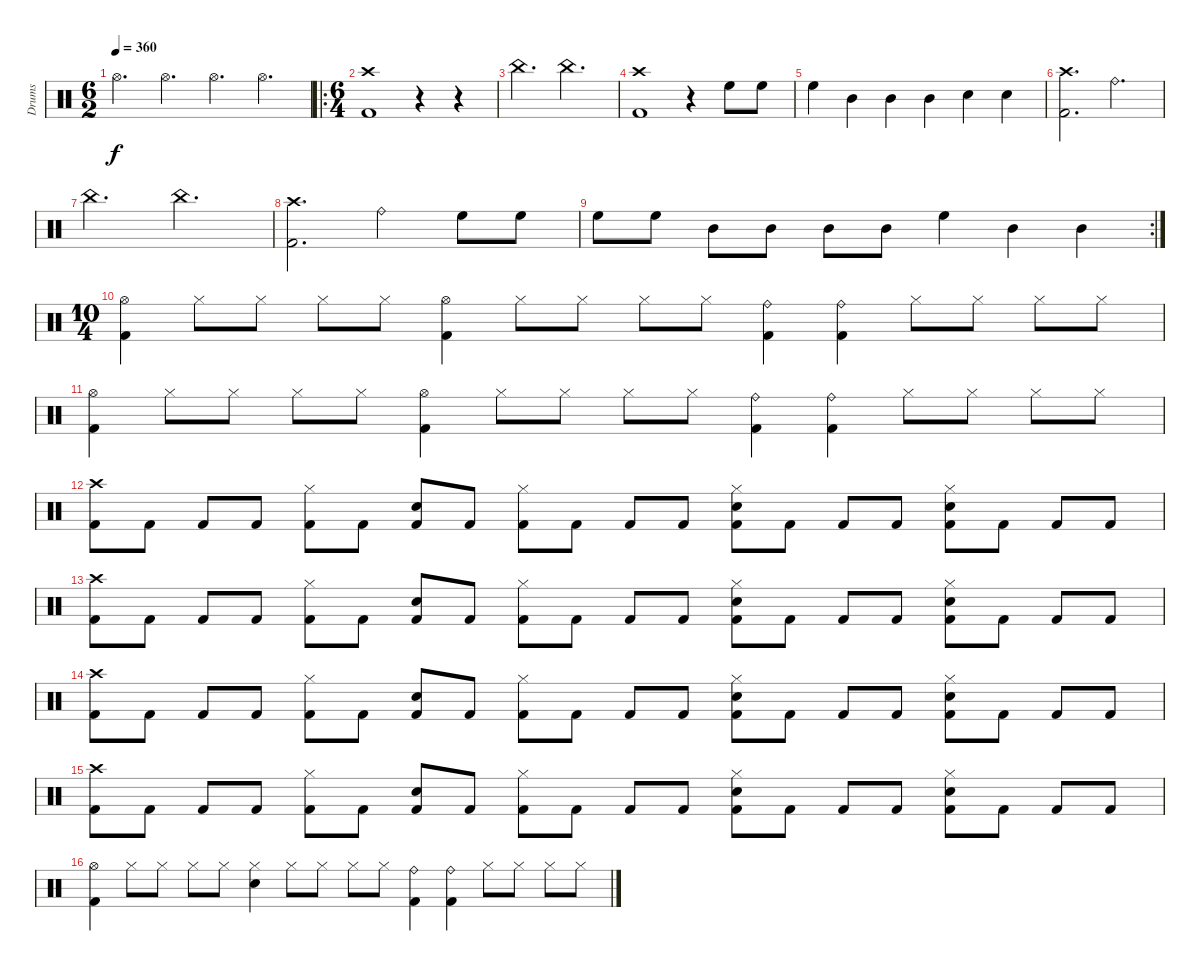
\track ("Drums" "Drums") {mute instrument percussion}
\staff {score}
\articulation defaults
\ts (6 2)
\tempo 360
\clef neutral
\ks c "Hi-Hat (open)".2{d dy f} "Hi-Hat (open)".2{d} "Hi-Hat (open)".2{d} "Hi-Hat (open)".2{d}
|
\ro
\ts (6 4)
("Crash high (hit)" "Kick (hit) 2").1 r.4 r.4 |
"China (hit)".2{d} "China (hit)".2{d} |
("Crash high (hit)" "Kick (hit) 2").1 r.4 "High Floor Tom (hit)".8 "High Floor Tom (hit)".8 |
"High Floor Tom (hit)".4 "Mid Tom (hit)".4 "Mid Tom (hit)".4 "Mid Tom (hit)".4 "Snare (hit) 2".4 "Snare (hit) 2".4 |
("Crash high (hit)" "Kick (hit) 2").2{d} "Ride (bell)".2{d} |
"China (hit)".2{d} "China (hit)".2{d} |
("Crash high (hit)" "Kick (hit) 2").2{d} "Ride (bell)".2 "High Floor Tom (hit)".8 "High Floor Tom (hit)".8 |
\rc 2 "High Floor Tom (hit)".8 "High Floor Tom (hit)".8 "Mid Tom (hit)".8 "Mid Tom (hit)".8 "Mid Tom (hit)".8 "Mid Tom (hit)".8 "High Floor Tom (hit)".4 "Mid Tom (hit)".4 "Mid Tom (hit)".4
|
\ts (10 4)
("Kick (hit) 2" "Hi-Hat (open)").4 "Hi-Hat (closed)".8 "Hi-Hat (closed)".8 "Hi-Hat (closed)".8 "Hi-Hat (closed)".8 ("Kick (hit) 2" "Hi-Hat (open)").4 "Hi-Hat (closed)".8 "Hi-Hat (closed)".8 "Hi-Hat (closed)".8 "Hi-Hat (closed)".8 ("Kick (hit) 2" "Ride (bell)").4 ("Kick (hit) 2" "Ride (bell)").4 "Hi-Hat (closed)".8 "Hi-Hat (closed)".8 "Hi-Hat (closed)".8 "Hi-Hat (closed)".8 |
("Kick (hit) 2" "Hi-Hat (open)").4 "Hi-Hat (closed)".8 "Hi-Hat (closed)".8 "Hi-Hat (closed)".8 "Hi-Hat (closed)".8 ("Kick (hit) 2" "Hi-Hat (open)").4 "Hi-Hat (closed)".8 "Hi-Hat (closed)".8 "Hi-Hat (closed)".8 "Hi-Hat (closed)".8 ("Kick (hit) 2" "Ride (bell)").4 ("Kick (hit) 2" "Ride (bell)").4 "Hi-Hat (closed)".8 "Hi-Hat (closed)".8 "Hi-Hat (closed)".8 "Hi-Hat (closed)".8 |
("Crash high (hit)" "Kick (hit) 2").8 "Kick (hit) 2".8 "Kick (hit) 2".8 "Kick (hit) 2".8 ("Hi-Hat (closed)" "Kick (hit) 2").8 "Kick (hit) 2".8 ("Snare (hit) 2" "Kick (hit) 2").8 "Kick (hit) 2".8 ("Hi-Hat (closed)" "Kick (hit) 2").8 "Kick (hit) 2".8 "Kick (hit) 2".8 "Kick (hit) 2".8 ("Hi-Hat (closed)" "Snare (hit) 2" "Kick (hit) 2").8 "Kick (hit) 2".8 "Kick (hit) 2".8 "Kick (hit) 2".8 ("Hi-Hat (closed)" "Snare (hit) 2" "Kick (hit) 2").8 "Kick (hit) 2".8 "Kick (hit) 2".8 "Kick (hit) 2".8 |
("Crash high (hit)" "Kick (hit) 2").8 "Kick (hit) 2".8 "Kick (hit) 2".8 "Kick (hit) 2".8 ("Hi-Hat (closed)" "Kick (hit) 2").8 "Kick (hit) 2".8 ("Snare (hit) 2" "Kick (hit) 2").8 "Kick (hit) 2".8 ("Hi-Hat (closed)" "Kick (hit) 2").8 "Kick (hit) 2".8 "Kick (hit) 2".8 "Kick (hit) 2".8 ("Hi-Hat (closed)" "Snare (hit) 2" "Kick (hit) 2").8 "Kick (hit) 2".8 "Kick (hit) 2".8 "Kick (hit) 2".8 ("Hi-Hat (closed)" "Snare (hit) 2" "Kick (hit) 2").8 "Kick (hit) 2".8 "Kick (hit) 2".8 "Kick (hit) 2".8 |
("Crash high (hit)" "Kick (hit) 2").8 "Kick (hit) 2".8 "Kick (hit) 2".8 "Kick (hit) 2".8 ("Hi-Hat (closed)" "Kick (hit) 2").8 "Kick (hit) 2".8 ("Snare (hit) 2" "Kick (hit) 2").8 "Kick (hit) 2".8 ("Hi-Hat (closed)" "Kick (hit) 2").8 "Kick (hit) 2".8 "Kick (hit) 2".8 "Kick (hit) 2".8 ("Hi-Hat (closed)" "Snare (hit) 2" "Kick (hit) 2").8 "Kick (hit) 2".8 "Kick (hit) 2".8 "Kick (hit) 2".8 ("Hi-Hat (closed)" "Snare (hit) 2" "Kick (hit) 2").8 "Kick (hit) 2".8 "Kick (hit) 2".8 "Kick (hit) 2".8 |
("Crash high (hit)" "Kick (hit) 2").8 "Kick (hit) 2".8 "Kick (hit) 2".8 "Kick (hit) 2".8 ("Hi-Hat (closed)" "Kick (hit) 2").8 "Kick (hit) 2".8 ("Snare (hit) 2" "Kick (hit) 2").8 "Kick (hit) 2".8 ("Hi-Hat (closed)" "Kick (hit) 2").8 "Kick (hit) 2".8 "Kick (hit) 2".8 "Kick (hit) 2".8 ("Hi-Hat (closed)" "Snare (hit) 2" "Kick (hit) 2").8 "Kick (hit) 2".8 "Kick (hit) 2".8 "Kick (hit) 2".8 ("Hi-Hat (closed)" "Snare (hit) 2" "Kick (hit) 2").8 "Kick (hit) 2".8 "Kick (hit) 2".8 "Kick (hit) 2".8 |
("Kick (hit) 2" "Hi-Hat (open)").4 "Hi-Hat (closed)".8 "Hi-Hat (closed)".8 "Hi-Hat (closed)".8 "Hi-Hat (closed)".8 ("Snare (hit) 2" "Hi-Hat (closed)").4 "Hi-Hat (closed)".8 "Hi-Hat (closed)".8 "Hi-Hat (closed)".8 "Hi-Hat (closed)".8 ("Kick (hit) 2" "Ride (bell)").4 ("Kick (hit) 2" "Ride (bell)").4 "Hi-Hat (closed)".8 "Hi-Hat (closed)".8 "Hi-Hat (closed)".8 "Hi-Hat (closed)".8
